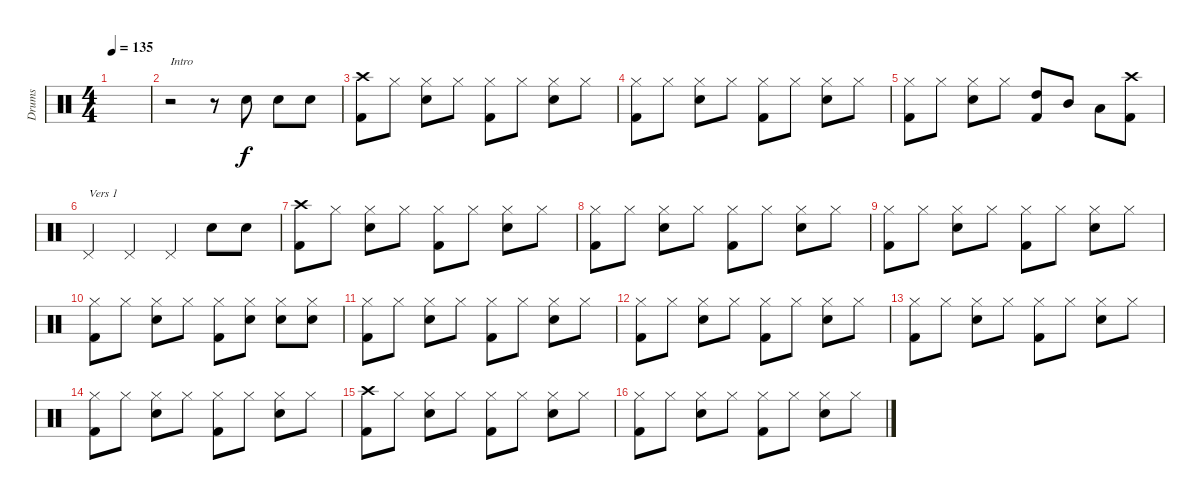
\track ("Drums" "Drums") {instrument percussion}
\staff {score}
\articulation defaults
\ts (4 4)
\tempo 135
\clef neutral
\ks c
|
r.2{txt "Intro"} r.8 "Snare (hit) 2".8 "Snare (hit) 2".8 "Snare (hit) 2".8 |
("Crash high (hit)" "Kick (hit) 2").8 "Hi-Hat (closed)".8 ("Hi-Hat (closed)" "Snare (hit) 2").8 "Hi-Hat (closed)".8 ("Hi-Hat (closed)" "Kick (hit) 2").8 "Hi-Hat (closed)".8 ("Hi-Hat (closed)" "Snare (hit) 2").8 "Hi-Hat (closed)".8 |
("Hi-Hat (closed)" "Kick (hit) 2").8 "Hi-Hat (closed)".8 ("Hi-Hat (closed)" "Snare (hit) 2").8 "Hi-Hat (closed)".8 ("Hi-Hat (closed)" "Kick (hit) 2").8 "Hi-Hat (closed)".8 ("Hi-Hat (closed)" "Snare (hit) 2").8 "Hi-Hat (closed)".8 |
("Hi-Hat (closed)" "Kick (hit) 2").8 "Hi-Hat (closed)".8 ("Hi-Hat (closed)" "Snare (hit) 2").8 "Hi-Hat (closed)".8 ("High Tom (hit)" "Kick (hit) 2").8 "Mid Tom (hit)".8 "Low Tom (hit)".8 ("Crash high (hit)" "Kick (hit) 2").8 |
"Pedal Hi-Hat (hit)".4{txt "Vers 1"} "Pedal Hi-Hat (hit)".4 "Pedal Hi-Hat (hit)".4 "Snare (hit) 2".8 "Snare (hit) 2".8 |
("Crash high (hit)" "Kick (hit) 2").8 "Hi-Hat (closed)".8 ("Hi-Hat (closed)" "Snare (hit) 2").8 "Hi-Hat (closed)".8 ("Hi-Hat (closed)" "Kick (hit) 2").8 "Hi-Hat (closed)".8 ("Hi-Hat (closed)" "Snare (hit) 2").8 "Hi-Hat (closed)".8 |
("Hi-Hat (closed)" "Kick (hit) 2").8 "Hi-Hat (closed)".8 ("Hi-Hat (closed)" "Snare (hit) 2").8 "Hi-Hat (closed)".8 ("Hi-Hat (closed)" "Kick (hit) 2").8 "Hi-Hat (closed)".8 ("Hi-Hat (closed)" "Snare (hit) 2").8 "Hi-Hat (closed)".8 |
("Hi-Hat (closed)" "Kick (hit) 2").8 "Hi-Hat (closed)".8 ("Hi-Hat (closed)" "Snare (hit) 2").8 "Hi-Hat (closed)".8 ("Hi-Hat (closed)" "Kick (hit) 2").8 "Hi-Hat (closed)".8 ("Hi-Hat (closed)" "Snare (hit) 2").8 "Hi-Hat (closed)".8 |
("Hi-Hat (closed)" "Kick (hit) 2").8 "Hi-Hat (closed)".8 ("Hi-Hat (closed)" "Snare (hit) 2").8 "Hi-Hat (closed)".8 ("Hi-Hat (closed)" "Kick (hit) 2").8 ("Hi-Hat (closed)" "Snare (hit) 2").8 ("Hi-Hat (closed)" "Snare (hit) 2").8 ("Hi-Hat (closed)" "Snare (hit) 2").8 |
("Hi-Hat (closed)" "Kick (hit) 2").8 "Hi-Hat (closed)".8 ("Hi-Hat (closed)" "Snare (hit) 2").8 "Hi-Hat (closed)".8 ("Hi-Hat (closed)" "Kick (hit) 2").8 "Hi-Hat (closed)".8 ("Hi-Hat (closed)" "Snare (hit) 2").8 "Hi-Hat (closed)".8 |
("Hi-Hat (closed)" "Kick (hit) 2").8 "Hi-Hat (closed)".8 ("Hi-Hat (closed)" "Snare (hit) 2").8 "Hi-Hat (closed)".8 ("Hi-Hat (closed)" "Kick (hit) 2").8 "Hi-Hat (closed)".8 ("Hi-Hat (closed)" "Snare (hit) 2").8 "Hi-Hat (closed)".8 |
("Hi-Hat (closed)" "Kick (hit) 2").8 "Hi-Hat (closed)".8 ("Hi-Hat (closed)" "Snare (hit) 2").8 "Hi-Hat (closed)".8 ("Hi-Hat (closed)" "Kick (hit) 2").8 "Hi-Hat (closed)".8 ("Hi-Hat (closed)" "Snare (hit) 2").8 "Hi-Hat (closed)".8 |
("Hi-Hat (closed)" "Kick (hit) 2").8 "Hi-Hat (closed)".8 ("Hi-Hat (closed)" "Snare (hit) 2").8 "Hi-Hat (closed)".8 ("Hi-Hat (closed)" "Kick (hit) 2").8 "Hi-Hat (closed)".8 ("Hi-Hat (closed)" "Snare (hit) 2").8 "Hi-Hat (closed)".8 |
("Crash high (hit)" "Kick (hit) 2").8 "Hi-Hat (closed)".8 ("Hi-Hat (closed)" "Snare (hit) 2").8 "Hi-Hat (closed)".8 ("Hi-Hat (closed)" "Kick (hit) 2").8 "Hi-Hat (closed)".8 ("Hi-Hat (closed)" "Snare (hit) 2").8 "Hi-Hat (closed)".8 |
("Hi-Hat (closed)" "Kick (hit) 2").8 "Hi-Hat (closed)".8 ("Hi-Hat (closed)" "Snare (hit) 2").8 "Hi-Hat (closed)".8 ("Hi-Hat (closed)" "Kick (hit) 2").8 "Hi-Hat (closed)".8 ("Hi-Hat (closed)" "Snare (hit) 2").8 "Hi-Hat (closed)".8
